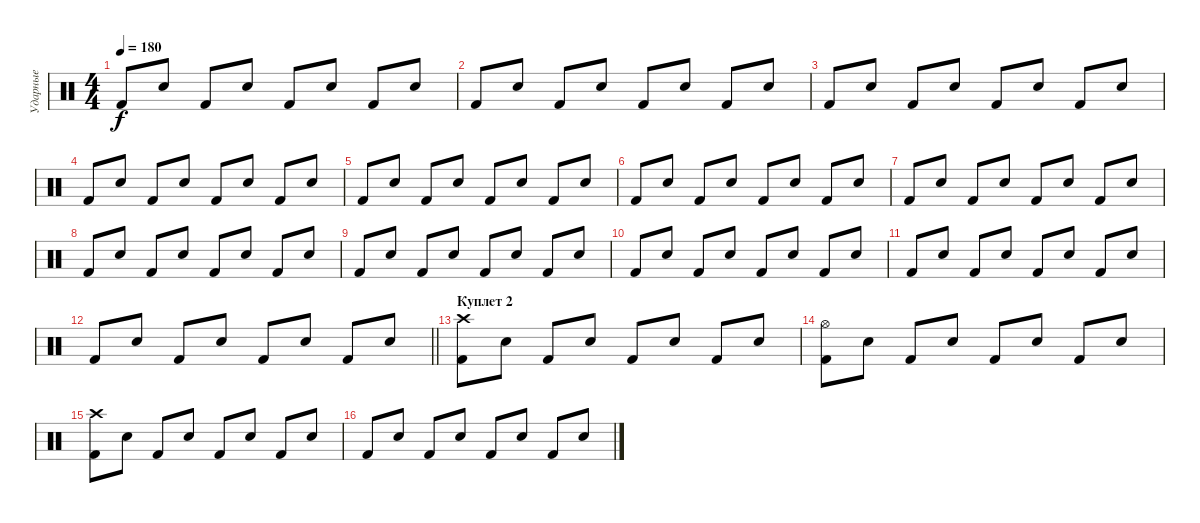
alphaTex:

\track ("Ударные" "Ударные") {instrument percussion}
\staff {score}
\articulation defaults
\ts (4 4)
\tempo 180
\clef neutral
\ks c "Kick (hit) 2".8{dy f} "Snare (hit) 2".8 "Kick (hit) 2".8 "Snare (hit) 2".8 "Kick (hit) 2".8 "Snare (hit) 2".8 "Kick (hit) 2".8 "Snare (hit) 2".8
|
"Kick (hit) 2".8 "Snare (hit) 2".8 "Kick (hit) 2".8 "Snare (hit) 2".8 "Kick (hit) 2".8 "Snare (hit) 2".8 "Kick (hit) 2".8 "Snare (hit) 2".8 |
"Kick (hit) 2".8 "Snare (hit) 2".8 "Kick (hit) 2".8 "Snare (hit) 2".8 "Kick (hit) 2".8 "Snare (hit) 2".8 "Kick (hit) 2".8 "Snare (hit) 2".8 |
"Kick (hit) 2".8 "Snare (hit) 2".8 "Kick (hit) 2".8 "Snare (hit) 2".8 "Kick (hit) 2".8 "Snare (hit) 2".8 "Kick (hit) 2".8 "Snare (hit) 2".8 |
"Kick (hit) 2".8 "Snare (hit) 2".8 "Kick (hit) 2".8 "Snare (hit) 2".8 "Kick (hit) 2".8 "Snare (hit) 2".8 "Kick (hit) 2".8 "Snare (hit) 2".8 |
"Kick (hit) 2".8 "Snare (hit) 2".8 "Kick (hit) 2".8 "Snare (hit) 2".8 "Kick (hit) 2".8 "Snare (hit) 2".8 "Kick (hit) 2".8 "Snare (hit) 2".8 |
"Kick (hit) 2".8 "Snare (hit) 2".8 "Kick (hit) 2".8 "Snare (hit) 2".8 "Kick (hit) 2".8 "Snare (hit) 2".8 "Kick (hit) 2".8 "Snare (hit) 2".8 |
"Kick (hit) 2".8 "Snare (hit) 2".8 "Kick (hit) 2".8 "Snare (hit) 2".8 "Kick (hit) 2".8 "Snare (hit) 2".8 "Kick (hit) 2".8 "Snare (hit) 2".8 |
"Kick (hit) 2".8 "Snare (hit) 2".8 "Kick (hit) 2".8 "Snare (hit) 2".8 "Kick (hit) 2".8 "Snare (hit) 2".8 "Kick (hit) 2".8 "Snare (hit) 2".8 |
"Kick (hit) 2".8 "Snare (hit) 2".8 "Kick (hit) 2".8 "Snare (hit) 2".8 "Kick (hit) 2".8 "Snare (hit) 2".8 "Kick (hit) 2".8 "Snare (hit) 2".8 |
"Kick (hit) 2".8 "Snare (hit) 2".8 "Kick (hit) 2".8 "Snare (hit) 2".8 "Kick (hit) 2".8 "Snare (hit) 2".8 "Kick (hit) 2".8 "Snare (hit) 2".8 |
\barLineRight lightlight "Kick (hit) 2".8 "Snare (hit) 2".8 "Kick (hit) 2".8 "Snare (hit) 2".8 "Kick (hit) 2".8 "Snare (hit) 2".8 "Kick (hit) 2".8 "Snare (hit) 2".8
|
\section ("" "Куплет 2")
("Kick (hit) 2" "Crash high (hit)").8 "Snare (hit) 2".8 "Kick (hit) 2".8 "Snare (hit) 2".8 "Kick (hit) 2".8 "Snare (hit) 2".8 "Kick (hit) 2".8 "Snare (hit) 2".8 |
("Kick (hit) 2" "Hi-Hat (open)").8 "Snare (hit) 2".8 "Kick (hit) 2".8 "Snare (hit) 2".8 "Kick (hit) 2".8 "Snare (hit) 2".8 "Kick (hit) 2".8 "Snare (hit) 2".8 |
("Kick (hit) 2" "Crash high (hit)").8 "Snare (hit) 2".8 "Kick (hit) 2".8 "Snare (hit) 2".8 "Kick (hit) 2".8 "Snare (hit) 2".8 "Kick (hit) 2".8 "Snare (hit) 2".8 |
"Kick (hit) 2".8 "Snare (hit) 2".8 "Kick (hit) 2".8 "Snare (hit) 2".8 "Kick (hit) 2".8 "Snare (hit) 2".8 "Kick (hit) 2".8 "Snare (hit) 2".8
